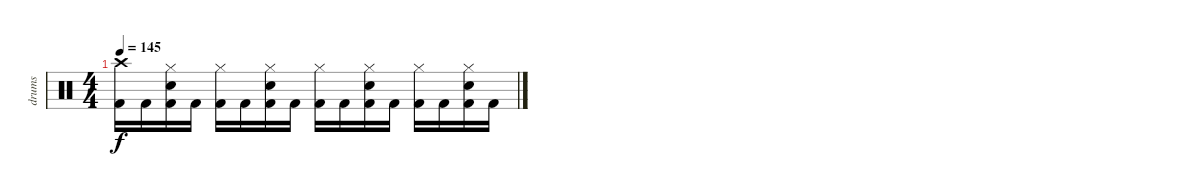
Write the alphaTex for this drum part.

\track ("drums" "drums") {instrument percussion}
\staff {score}
\articulation defaults
\ts (4 4)
\tempo 145
\clef neutral
\ks c
("Crash high (hit)" "Kick (hit) 2").16{dy f} "Kick (hit) 2".16 ("Snare (hit) 2" "Kick (hit) 2" "Hi-Hat (closed)").16 "Kick (hit) 2".16 ("Kick (hit) 2" "Hi-Hat (closed)").16 "Kick (hit) 2".16 ("Snare (hit) 2" "Kick (hit) 2" "Hi-Hat (closed)").16 "Kick (hit) 2".16 ("Kick (hit) 2" "Hi-Hat (closed)").16 "Kick (hit) 2".16 ("Snare (hit) 2" "Kick (hit) 2" "Hi-Hat (closed)").16 "Kick (hit) 2".16 ("Kick (hit) 2" "Hi-Hat (closed)").16 "Kick (hit) 2".16 ("Snare (hit) 2" "Kick (hit) 2" "Hi-Hat (closed)").16 "Kick (hit) 2".16
